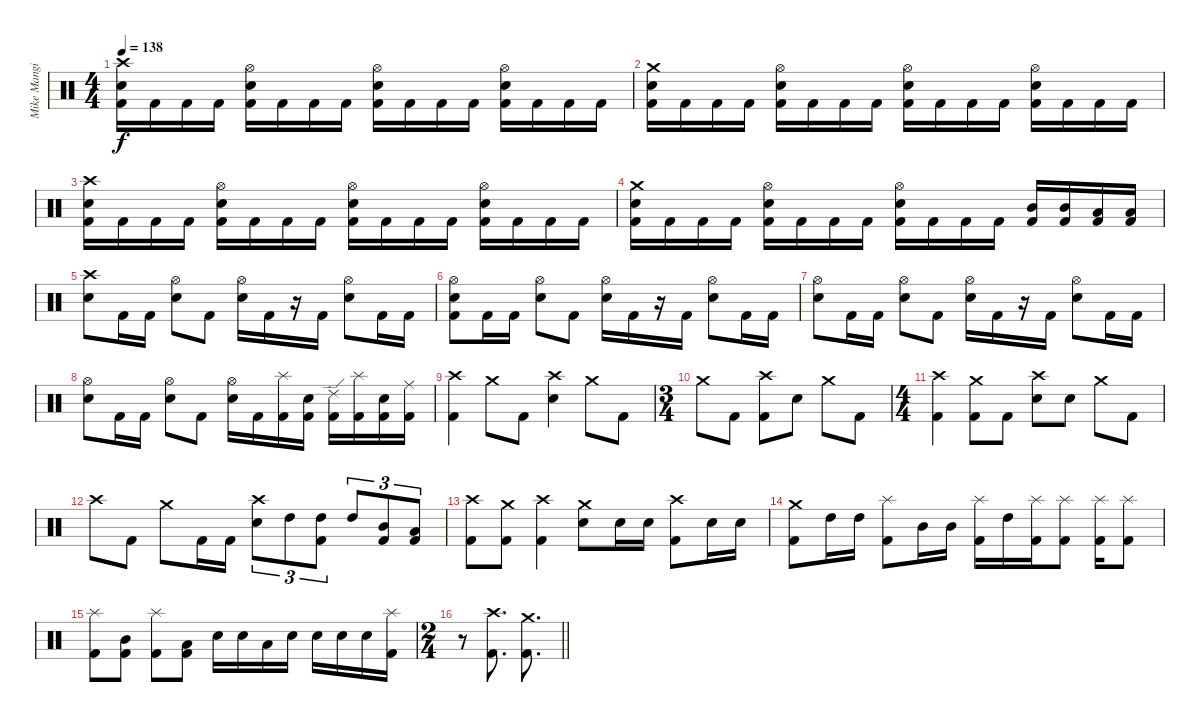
\track ("Mike Mangini" "Mike Mangi") {instrument percussion}
\staff {score}
\articulation defaults
\ts (4 4)
\tempo 138
\clef neutral
\ks c
("Crash high (hit)" "Electric Snare (hit)" "Kick (hit) 2").16{dy f} "Kick (hit) 2".16 "Kick (hit) 2".16 "Kick (hit) 2".16 ("Hi-Hat (open)" "Electric Snare (hit)" "Kick (hit) 2").16 "Kick (hit) 2".16 "Kick (hit) 2".16 "Kick (hit) 2".16 ("Hi-Hat (open)" "Electric Snare (hit)" "Kick (hit) 2").16 "Kick (hit) 2".16 "Kick (hit) 2".16 "Kick (hit) 2".16 ("Hi-Hat (open)" "Electric Snare (hit)" "Kick (hit) 2").16 "Kick (hit) 2".16 "Kick (hit) 2".16 "Kick (hit) 2".16 |
("Crash medium (hit)" "Electric Snare (hit)" "Kick (hit) 2").16 "Kick (hit) 2".16 "Kick (hit) 2".16 "Kick (hit) 2".16 ("Hi-Hat (open)" "Electric Snare (hit)" "Kick (hit) 2").16 "Kick (hit) 2".16 "Kick (hit) 2".16 "Kick (hit) 2".16 ("Hi-Hat (open)" "Electric Snare (hit)" "Kick (hit) 2").16 "Kick (hit) 2".16 "Kick (hit) 2".16 "Kick (hit) 2".16 ("Hi-Hat (open)" "Electric Snare (hit)" "Kick (hit) 2").16 "Kick (hit) 2".16 "Kick (hit) 2".16 "Kick (hit) 2".16 |
("Crash high (hit)" "Electric Snare (hit)" "Kick (hit) 2").16 "Kick (hit) 2".16 "Kick (hit) 2".16 "Kick (hit) 2".16 ("Hi-Hat (open)" "Electric Snare (hit)" "Kick (hit) 2").16 "Kick (hit) 2".16 "Kick (hit) 2".16 "Kick (hit) 2".16 ("Hi-Hat (open)" "Electric Snare (hit)" "Kick (hit) 2").16 "Kick (hit) 2".16 "Kick (hit) 2".16 "Kick (hit) 2".16 ("Hi-Hat (open)" "Electric Snare (hit)" "Kick (hit) 2").16 "Kick (hit) 2".16 "Kick (hit) 2".16 "Kick (hit) 2".16 |
("Crash medium (hit)" "Electric Snare (hit)" "Kick (hit) 2").16 "Kick (hit) 2".16 "Kick (hit) 2".16 "Kick (hit) 2".16 ("Hi-Hat (open)" "Electric Snare (hit)" "Kick (hit) 2").16 "Kick (hit) 2".16 "Kick (hit) 2".16 "Kick (hit) 2".16 ("Hi-Hat (open)" "Electric Snare (hit)" "Kick (hit) 2").16 "Kick (hit) 2".16 "Kick (hit) 2".16 "Kick (hit) 2".16 ("Mid Tom (hit)" "Kick (hit) 2").16 ("Mid Tom (hit)" "Kick (hit) 2").16 ("Low Tom (hit)" "Kick (hit) 2").16 ("Low Tom (hit)" "Kick (hit) 2").16 |
("Crash high (hit)" "Electric Snare (hit)").8 "Kick (hit) 2".16 "Kick (hit) 2".16 ("Hi-Hat (open)" "Electric Snare (hit)").8 "Kick (hit) 2".8 ("Hi-Hat (open)" "Electric Snare (hit)").16 "Kick (hit) 2".16 r.16 "Kick (hit) 2".16 ("Hi-Hat (open)" "Electric Snare (hit)").8 "Kick (hit) 2".16 "Kick (hit) 2".16 |
("Hi-Hat (open)" "Electric Snare (hit)" "Kick (hit) 2").8 "Kick (hit) 2".16 "Kick (hit) 2".16 ("Hi-Hat (open)" "Electric Snare (hit)").8 "Kick (hit) 2".8 ("Hi-Hat (open)" "Electric Snare (hit)").16 "Kick (hit) 2".16 r.16 "Kick (hit) 2".16 ("Hi-Hat (open)" "Electric Snare (hit)").8 "Kick (hit) 2".16 "Kick (hit) 2".16 |
("Hi-Hat (open)" "Electric Snare (hit)").8 "Kick (hit) 2".16 "Kick (hit) 2".16 ("Hi-Hat (open)" "Electric Snare (hit)").8 "Kick (hit) 2".8 ("Hi-Hat (open)" "Electric Snare (hit)").16 "Kick (hit) 2".16 r.16 "Kick (hit) 2".16 ("Hi-Hat (open)" "Electric Snare (hit)").8 "Kick (hit) 2".16 "Kick (hit) 2".16 |
("Hi-Hat (open)" "Electric Snare (hit)").8 "Kick (hit) 2".16 "Kick (hit) 2".16 ("Hi-Hat (open)" "Electric Snare (hit)").8 "Kick (hit) 2".8 ("Hi-Hat (open)" "Electric Snare (hit)").16 "Kick (hit) 2".16 ("Splash (hit)" "Kick (hit) 2").16 ("Electric Snare (hit)" "Kick (hit) 2").16 ("Ride (edge) 2" "Kick (hit) 2").16 ("Splash (hit)" "Kick (hit) 2").16 ("Electric Snare (hit)" "Kick (hit) 2").16 ("Ride (middle)" "Kick (hit) 2").16 |
("Crash high (hit)" "Kick (hit) 2").4 "Crash medium (hit)".8 "Kick (hit) 2".8 ("Crash high (hit)" "Electric Snare (hit)").4 "Crash medium (hit)".8 "Kick (hit) 2".8 |
\ts (3 4)
"Crash medium (hit)".8 "Kick (hit) 2".8 ("Crash high (hit)" "Kick (hit) 2").8 "Electric Snare (hit)".8 "Crash medium (hit)".8 "Kick (hit) 2".8 |
\ts (4 4)
("Crash high (hit)" "Kick (hit) 2").4 ("Crash medium (hit)" "Kick (hit) 2").8 "Kick (hit) 2".8 ("Crash high (hit)" "Electric Snare (hit)").8 "Electric Snare (hit)".8 "Crash medium (hit)".8 "Kick (hit) 2".8 |
"Crash high (hit)".8 "Kick (hit) 2".8 "Crash medium (hit)".8 "Kick (hit) 2".16 "Kick (hit) 2".16 ("Crash high (hit)" "Electric Snare (hit)").8{tu (3 2)} "High Tom (hit)".8{tu (3 2)} ("High Tom (hit)" "Kick (hit) 2").8{tu (3 2)} "High Tom (hit)".8{tu (3 2)} ("Mid Tom (hit)" "Kick (hit) 2").8{tu (3 2)} ("Low Tom (hit)" "Kick (hit) 2").8{tu (3 2)} |
("Crash high (hit)" "Kick (hit) 2").8 ("Crash medium (hit)" "Kick (hit) 2").8 ("Crash high (hit)" "Kick (hit) 2").4 ("Crash medium (hit)" "Electric Snare (hit)").8 "Electric Snare (hit)".16 "Electric Snare (hit)".16 ("Crash high (hit)" "Kick (hit) 2").8 "Electric Snare (hit)".16 "Electric Snare (hit)".16 |
("Crash medium (hit)" "Kick (hit) 2").8 "High Tom (hit)".16 "High Tom (hit)".16 ("Splash (hit)" "Kick (hit) 2").8 "Mid Tom (hit)".16 "Mid Tom (hit)".16 ("Splash (hit)" "Kick (hit) 2").16 "High Tom (hit)".16 ("Splash (hit)" "Kick (hit) 2").16 ("Splash (hit)" "Kick (hit) 2").8 ("Splash (hit)" "Kick (hit) 2").16 ("Splash (hit)" "Kick (hit) 2").8 |
("Splash (hit)" "Kick (hit) 2").8 ("Mid Tom (hit)" "Kick (hit) 2").8 ("Splash (hit)" "Kick (hit) 2").8 ("Low Tom (hit)" "Kick (hit) 2").8 "Electric Snare (hit)".16 "Electric Snare (hit)".16 "Low Tom (hit)".16 "Electric Snare (hit)".16 "Electric Snare (hit)".16 "Electric Snare (hit)".16 "Electric Snare (hit)".16 ("Splash (hit)" "Kick (hit) 2").16 |
\ts (2 4)
\barLineRight lightlight
r.8 ("Crash high (hit)" "Kick (hit) 2").8{d} ("Crash medium (hit)" "Kick (hit) 2").8{d}
